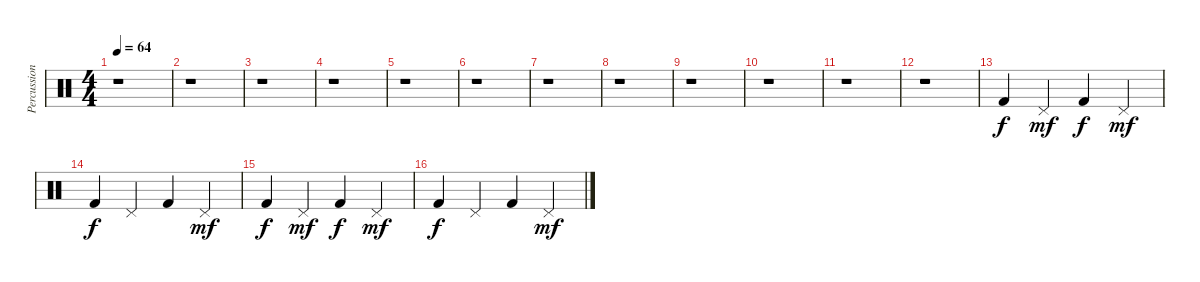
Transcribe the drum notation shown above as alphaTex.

\track ("Percussioni" "Percussion") {instrument percussion}
\staff {score}
\articulation defaults
\ts (4 4)
\tempo 64
\clef neutral
\ks c
r.1{dy f} |
r.1 |
r.1 |
r.1 |
r.1 |
r.1 |
r.1 |
r.1 |
r.1 |
r.1 |
r.1 |
r.1 |
"Kick (hit) 2".4 "Pedal Hi-Hat (hit)".4{dy mf} "Kick (hit) 2".4{dy f} "Pedal Hi-Hat (hit)".4{dy mf} |
"Kick (hit) 2".4{dy f} "Pedal Hi-Hat (hit)".4 "Kick (hit) 2".4 "Pedal Hi-Hat (hit)".4{dy mf} |
"Kick (hit) 2".4{dy f} "Pedal Hi-Hat (hit)".4{dy mf} "Kick (hit) 2".4{dy f} "Pedal Hi-Hat (hit)".4{dy mf} |
"Kick (hit) 2".4{dy f} "Pedal Hi-Hat (hit)".4 "Kick (hit) 2".4 "Pedal Hi-Hat (hit)".4{dy mf}
